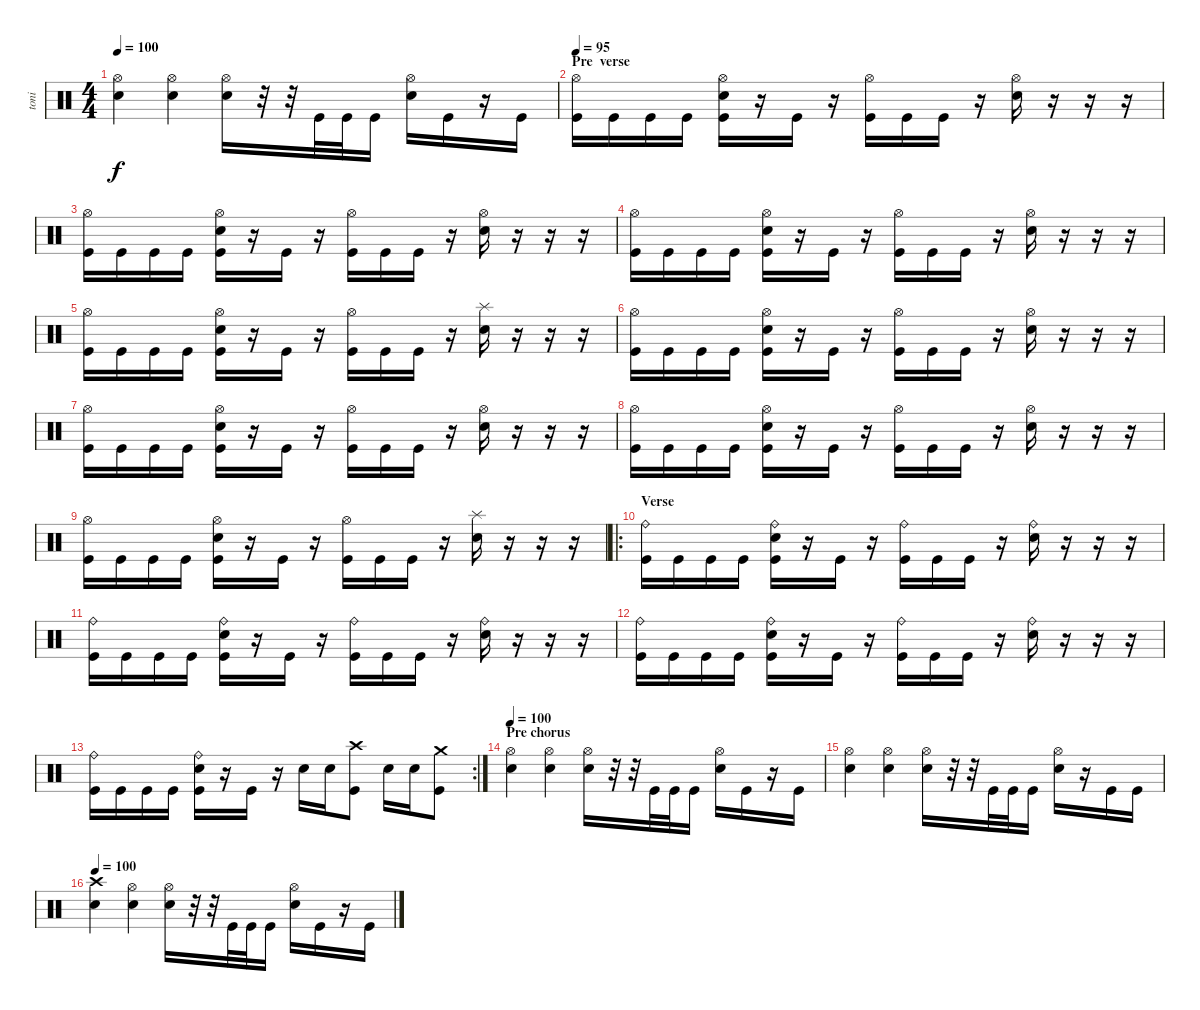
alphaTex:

\track ("toni" "toni") {instrument percussion}
\staff {score}
\articulation defaults
\ts (4 4)
\tempo 100
\clef neutral
\ks c
("Hi-Hat (open)" "Snare (hit) 2").4{dy f} ("Hi-Hat (open)" "Snare (hit) 2").4 ("Hi-Hat (open)" "Snare (hit) 2").16 r.32 r.32 "Kick (hit)".32 "Kick (hit)".32 "Kick (hit)".16 ("Hi-Hat (open)" "Snare (hit) 2").16 "Kick (hit)".16 r.16 "Kick (hit)".16 |
\section ("" "Pre  verse")
\tempo 95
("Hi-Hat (open)" "Kick (hit)").16 "Kick (hit)".16 "Kick (hit)".16 "Kick (hit)".16 ("Hi-Hat (open)" "Snare (hit) 2" "Kick (hit)").16 r.16 "Kick (hit)".16 r.16 ("Hi-Hat (open)" "Kick (hit)").16 "Kick (hit)".16 "Kick (hit)".16 r.16 ("Hi-Hat (open)" "Snare (hit) 2").16 r.16 r.16 r.16 |
("Hi-Hat (open)" "Kick (hit)").16 "Kick (hit)".16 "Kick (hit)".16 "Kick (hit)".16 ("Hi-Hat (open)" "Snare (hit) 2" "Kick (hit)").16 r.16 "Kick (hit)".16 r.16 ("Hi-Hat (open)" "Kick (hit)").16 "Kick (hit)".16 "Kick (hit)".16 r.16 ("Hi-Hat (open)" "Snare (hit) 2").16 r.16 r.16 r.16 |
("Hi-Hat (open)" "Kick (hit)").16 "Kick (hit)".16 "Kick (hit)".16 "Kick (hit)".16 ("Hi-Hat (open)" "Snare (hit) 2" "Kick (hit)").16 r.16 "Kick (hit)".16 r.16 ("Hi-Hat (open)" "Kick (hit)").16 "Kick (hit)".16 "Kick (hit)".16 r.16 ("Hi-Hat (open)" "Snare (hit) 2").16 r.16 r.16 r.16 |
("Hi-Hat (open)" "Kick (hit)").16 "Kick (hit)".16 "Kick (hit)".16 "Kick (hit)".16 ("Hi-Hat (open)" "Snare (hit) 2" "Kick (hit)").16 r.16 "Kick (hit)".16 r.16 ("Hi-Hat (open)" "Kick (hit)").16 "Kick (hit)".16 "Kick (hit)".16 r.16 ("Splash (hit)" "Snare (hit) 2").16 r.16 r.16 r.16 |
("Hi-Hat (open)" "Kick (hit)").16 "Kick (hit)".16 "Kick (hit)".16 "Kick (hit)".16 ("Hi-Hat (open)" "Snare (hit) 2" "Kick (hit)").16 r.16 "Kick (hit)".16 r.16 ("Hi-Hat (open)" "Kick (hit)").16 "Kick (hit)".16 "Kick (hit)".16 r.16 ("Hi-Hat (open)" "Snare (hit) 2").16 r.16 r.16 r.16 |
("Hi-Hat (open)" "Kick (hit)").16 "Kick (hit)".16 "Kick (hit)".16 "Kick (hit)".16 ("Hi-Hat (open)" "Snare (hit) 2" "Kick (hit)").16 r.16 "Kick (hit)".16 r.16 ("Hi-Hat (open)" "Kick (hit)").16 "Kick (hit)".16 "Kick (hit)".16 r.16 ("Hi-Hat (open)" "Snare (hit) 2").16 r.16 r.16 r.16 |
("Hi-Hat (open)" "Kick (hit)").16 "Kick (hit)".16 "Kick (hit)".16 "Kick (hit)".16 ("Hi-Hat (open)" "Snare (hit) 2" "Kick (hit)").16 r.16 "Kick (hit)".16 r.16 ("Hi-Hat (open)" "Kick (hit)").16 "Kick (hit)".16 "Kick (hit)".16 r.16 ("Hi-Hat (open)" "Snare (hit) 2").16 r.16 r.16 r.16 |
("Hi-Hat (open)" "Kick (hit)").16 "Kick (hit)".16 "Kick (hit)".16 "Kick (hit)".16 ("Hi-Hat (open)" "Snare (hit) 2" "Kick (hit)").16 r.16 "Kick (hit)".16 r.16 ("Hi-Hat (open)" "Kick (hit)").16 "Kick (hit)".16 "Kick (hit)".16 r.16 ("Splash (hit)" "Snare (hit) 2").16 r.16 r.16 r.16 |
\ro
\section ("" "Verse")
("Ride (bell)" "Kick (hit)").16 "Kick (hit)".16 "Kick (hit)".16 "Kick (hit)".16 ("Ride (bell)" "Snare (hit) 2" "Kick (hit)").16 r.16 "Kick (hit)".16 r.16 ("Ride (bell)" "Kick (hit)").16 "Kick (hit)".16 "Kick (hit)".16 r.16 ("Ride (bell)" "Snare (hit) 2").16 r.16 r.16 r.16 |
("Ride (bell)" "Kick (hit)").16 "Kick (hit)".16 "Kick (hit)".16 "Kick (hit)".16 ("Ride (bell)" "Snare (hit) 2" "Kick (hit)").16 r.16 "Kick (hit)".16 r.16 ("Ride (bell)" "Kick (hit)").16 "Kick (hit)".16 "Kick (hit)".16 r.16 ("Ride (bell)" "Snare (hit) 2").16 r.16 r.16 r.16 |
("Ride (bell)" "Kick (hit)").16 "Kick (hit)".16 "Kick (hit)".16 "Kick (hit)".16 ("Ride (bell)" "Snare (hit) 2" "Kick (hit)").16 r.16 "Kick (hit)".16 r.16 ("Ride (bell)" "Kick (hit)").16 "Kick (hit)".16 "Kick (hit)".16 r.16 ("Ride (bell)" "Snare (hit) 2").16 r.16 r.16 r.16 |
\rc 2
("Ride (bell)" "Kick (hit)").16 "Kick (hit)".16 "Kick (hit)".16 "Kick (hit)".16 ("Ride (bell)" "Snare (hit) 2" "Kick (hit)").16 r.16 "Kick (hit)".16 r.16 "Snare (hit) 2".16 "Snare (hit) 2".16 ("Crash high (hit)" "Kick (hit)").8 "Snare (hit) 2".16 "Snare (hit) 2".16 ("Crash medium (hit)" "Kick (hit)").8 |
\section ("" "Pre chorus")
\tempo 100
("Hi-Hat (open)" "Snare (hit) 2").4 ("Hi-Hat (open)" "Snare (hit) 2").4 ("Hi-Hat (open)" "Snare (hit) 2").16 r.32 r.32 "Kick (hit)".32 "Kick (hit)".32 "Kick (hit)".16 ("Hi-Hat (open)" "Snare (hit) 2").16 "Kick (hit)".16 r.16 "Kick (hit)".16 |
("Hi-Hat (open)" "Snare (hit) 2").4 ("Hi-Hat (open)" "Snare (hit) 2").4 ("Hi-Hat (open)" "Snare (hit) 2").16 r.32 r.32 "Kick (hit)".32 "Kick (hit)".32 "Kick (hit)".16 ("Hi-Hat (open)" "Snare (hit) 2").16 r.16 "Kick (hit)".16 "Kick (hit)".16 |
\tempo 100
("Crash high (hit)" "Snare (hit) 2").4 ("Hi-Hat (open)" "Snare (hit) 2").4 ("Hi-Hat (open)" "Snare (hit) 2").16 r.32 r.32 "Kick (hit)".32 "Kick (hit)".32 "Kick (hit)".16 ("Hi-Hat (open)" "Snare (hit) 2").16 "Kick (hit)".16 r.16 "Kick (hit)".16
